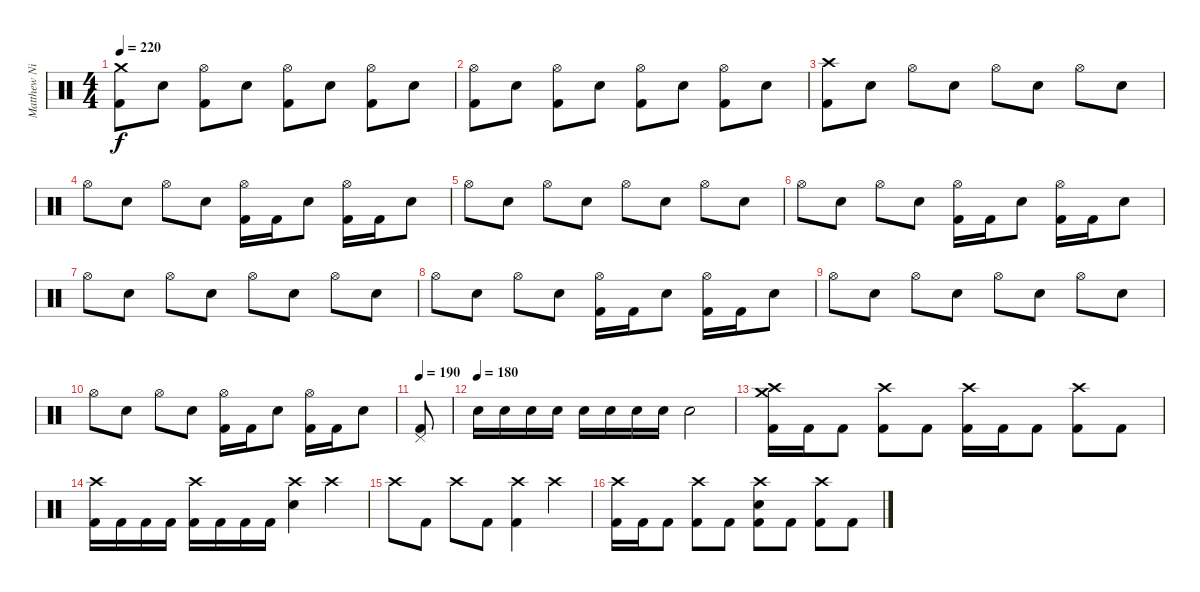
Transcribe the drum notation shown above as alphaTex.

\track ("Matthew Nicholls" "Matthew Ni") {instrument percussion}
\staff {score}
\articulation defaults
\ts (4 4)
\tempo 220
\clef neutral
\ks c
("Crash medium (hit)" "Kick (hit) 2").8{dy f} "Electric Snare (hit)".8 ("Hi-Hat (open)" "Kick (hit) 2").8 "Electric Snare (hit)".8 ("Hi-Hat (open)" "Kick (hit) 2").8 "Electric Snare (hit)".8 ("Hi-Hat (open)" "Kick (hit) 2").8 "Electric Snare (hit)".8 |
("Hi-Hat (open)" "Kick (hit) 2").8 "Electric Snare (hit)".8 ("Hi-Hat (open)" "Kick (hit) 2").8 "Electric Snare (hit)".8 ("Hi-Hat (open)" "Kick (hit) 2").8 "Electric Snare (hit)".8 ("Hi-Hat (open)" "Kick (hit) 2").8 "Electric Snare (hit)".8 |
("Crash high (hit)" "Kick (hit) 2").8 "Electric Snare (hit)".8 "Hi-Hat (open)".8 "Electric Snare (hit)".8 "Hi-Hat (open)".8 "Electric Snare (hit)".8 "Hi-Hat (open)".8 "Electric Snare (hit)".8 |
"Hi-Hat (open)".8 "Electric Snare (hit)".8 "Hi-Hat (open)".8 "Electric Snare (hit)".8 ("Hi-Hat (open)" "Kick (hit) 2").16 "Kick (hit) 2".16 "Electric Snare (hit)".8 ("Hi-Hat (open)" "Kick (hit) 2").16 "Kick (hit) 2".16 "Electric Snare (hit)".8 |
"Hi-Hat (open)".8 "Electric Snare (hit)".8 "Hi-Hat (open)".8 "Electric Snare (hit)".8 "Hi-Hat (open)".8 "Electric Snare (hit)".8 "Hi-Hat (open)".8 "Electric Snare (hit)".8 |
"Hi-Hat (open)".8 "Electric Snare (hit)".8 "Hi-Hat (open)".8 "Electric Snare (hit)".8 ("Hi-Hat (open)" "Kick (hit) 2").16 "Kick (hit) 2".16 "Electric Snare (hit)".8 ("Hi-Hat (open)" "Kick (hit) 2").16 "Kick (hit) 2".16 "Electric Snare (hit)".8 |
"Hi-Hat (open)".8 "Electric Snare (hit)".8 "Hi-Hat (open)".8 "Electric Snare (hit)".8 "Hi-Hat (open)".8 "Electric Snare (hit)".8 "Hi-Hat (open)".8 "Electric Snare (hit)".8 |
"Hi-Hat (open)".8 "Electric Snare (hit)".8 "Hi-Hat (open)".8 "Electric Snare (hit)".8 ("Hi-Hat (open)" "Kick (hit) 2").16 "Kick (hit) 2".16 "Electric Snare (hit)".8 ("Hi-Hat (open)" "Kick (hit) 2").16 "Kick (hit) 2".16 "Electric Snare (hit)".8 |
"Hi-Hat (open)".8 "Electric Snare (hit)".8 "Hi-Hat (open)".8 "Electric Snare (hit)".8 "Hi-Hat (open)".8 "Electric Snare (hit)".8 "Hi-Hat (open)".8 "Electric Snare (hit)".8 |
"Hi-Hat (open)".8 "Electric Snare (hit)".8 "Hi-Hat (open)".8 "Electric Snare (hit)".8 ("Hi-Hat (open)" "Kick (hit) 2").16 "Kick (hit) 2".16 "Electric Snare (hit)".8 ("Hi-Hat (open)" "Kick (hit) 2").16 "Kick (hit) 2".16 "Electric Snare (hit)".8 |
\tempo 190
("Pedal Hi-Hat (hit)" "Kick (hit) 2").8 |
\tempo (180)
"Electric Snare (hit)".16 "Electric Snare (hit)".16 "Electric Snare (hit)".16 "Electric Snare (hit)".16 "Electric Snare (hit)".16 "Electric Snare (hit)".16 "Electric Snare (hit)".16 "Electric Snare (hit)".16 "Electric Snare (hit)".2 |
("Crash medium (hit)" "Crash high (hit)" "Kick (hit) 2").16 "Kick (hit) 2".16 "Kick (hit) 2".8 ("Crash high (hit)" "Kick (hit) 2").8 "Kick (hit) 2".8 ("Crash high (hit)" "Kick (hit) 2").16 "Kick (hit) 2".16 "Kick (hit) 2".8 ("Crash high (hit)" "Kick (hit) 2").8 "Kick (hit) 2".8 |
("Crash high (hit)" "Kick (hit) 2").16 "Kick (hit) 2".16 "Kick (hit) 2".16 "Kick (hit) 2".16 ("Crash high (hit)" "Kick (hit) 2").16 "Kick (hit) 2".16 "Kick (hit) 2".16 "Kick (hit) 2".16 ("Crash high (hit)" "Electric Snare (hit)").4 "Crash high (hit)".4 |
"Crash high (hit)".8 "Kick (hit) 2".8 "Crash high (hit)".8 "Kick (hit) 2".8 ("Crash high (hit)" "Kick (hit) 2").4 "Crash high (hit)".4 |
("Crash high (hit)" "Kick (hit) 2").16 "Kick (hit) 2".16 "Kick (hit) 2".8 ("Crash high (hit)" "Kick (hit) 2").8 "Kick (hit) 2".8 ("Crash high (hit)" "Electric Snare (hit)" "Kick (hit) 2").8 "Kick (hit) 2".8 ("Crash high (hit)" "Kick (hit) 2").8 "Kick (hit) 2".8
